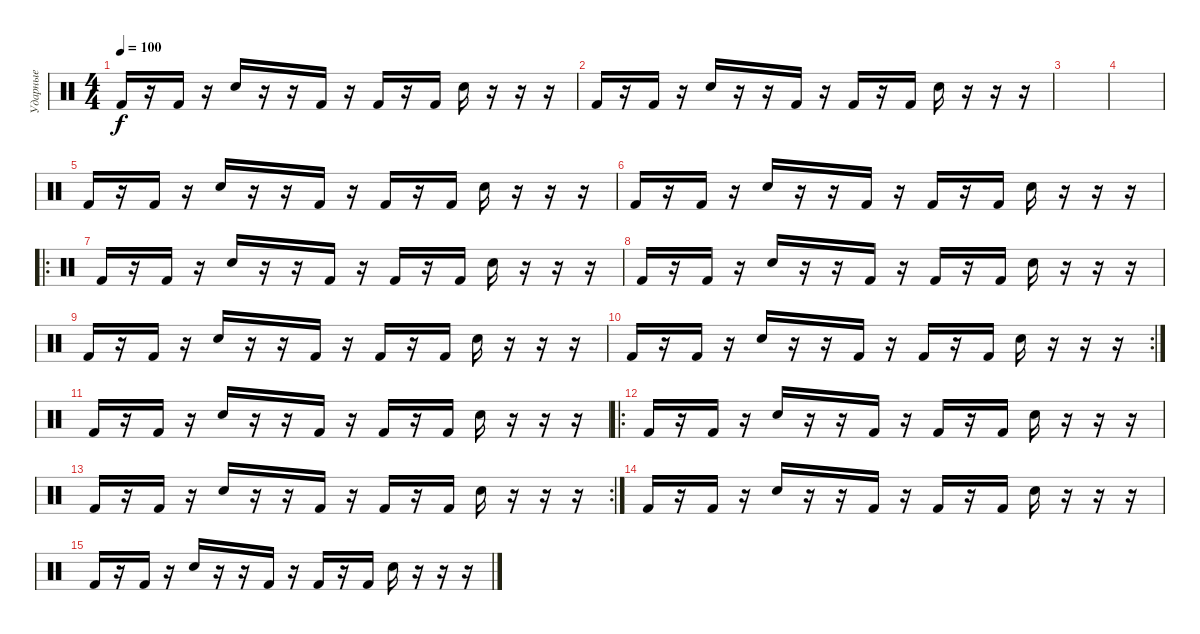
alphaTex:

\track ("Ударные" "Ударные") {instrument percussion}
\staff {score}
\articulation defaults
\ts (4 4)
\tempo 100
\clef neutral
\ks c "Kick (hit) 2".16{dy f}
r.16 "Kick (hit) 2".16 r.16 "Electric Snare (hit)".16 r.16 r.16 "Kick (hit) 2".16 r.16 "Kick (hit) 2".16 r.16 "Kick (hit) 2".16 "Electric Snare (hit)".16 r.16 r.16 r.16 |
"Kick (hit) 2".16 r.16 "Kick (hit) 2".16 r.16 "Electric Snare (hit)".16 r.16 r.16 "Kick (hit) 2".16 r.16 "Kick (hit) 2".16 r.16 "Kick (hit) 2".16 "Electric Snare (hit)".16 r.16 r.16 r.16 |
|
|
"Kick (hit) 2".16 r.16 "Kick (hit) 2".16 r.16 "Electric Snare (hit)".16 r.16 r.16 "Kick (hit) 2".16 r.16 "Kick (hit) 2".16 r.16 "Kick (hit) 2".16 "Electric Snare (hit)".16 r.16 r.16 r.16 |
"Kick (hit) 2".16 r.16 "Kick (hit) 2".16 r.16 "Electric Snare (hit)".16 r.16 r.16 "Kick (hit) 2".16 r.16 "Kick (hit) 2".16 r.16 "Kick (hit) 2".16 "Electric Snare (hit)".16 r.16 r.16 r.16 |
\ro "Kick (hit) 2".16
r.16 "Kick (hit) 2".16 r.16 "Electric Snare (hit)".16 r.16 r.16 "Kick (hit) 2".16 r.16 "Kick (hit) 2".16 r.16 "Kick (hit) 2".16 "Electric Snare (hit)".16 r.16 r.16 r.16 |
"Kick (hit) 2".16 r.16 "Kick (hit) 2".16 r.16 "Electric Snare (hit)".16 r.16 r.16 "Kick (hit) 2".16 r.16 "Kick (hit) 2".16 r.16 "Kick (hit) 2".16 "Electric Snare (hit)".16 r.16 r.16 r.16 |
"Kick (hit) 2".16 r.16 "Kick (hit) 2".16 r.16 "Electric Snare (hit)".16 r.16 r.16 "Kick (hit) 2".16 r.16 "Kick (hit) 2".16 r.16 "Kick (hit) 2".16 "Electric Snare (hit)".16 r.16 r.16 r.16 |
\rc 2 "Kick (hit) 2".16
r.16 "Kick (hit) 2".16 r.16 "Electric Snare (hit)".16 r.16 r.16 "Kick (hit) 2".16 r.16 "Kick (hit) 2".16 r.16 "Kick (hit) 2".16 "Electric Snare (hit)".16 r.16 r.16 r.16 |
"Kick (hit) 2".16 r.16 "Kick (hit) 2".16 r.16 "Electric Snare (hit)".16 r.16 r.16 "Kick (hit) 2".16 r.16 "Kick (hit) 2".16 r.16 "Kick (hit) 2".16 "Electric Snare (hit)".16 r.16 r.16 r.16 |
\ro "Kick (hit) 2".16
r.16 "Kick (hit) 2".16 r.16 "Electric Snare (hit)".16 r.16 r.16 "Kick (hit) 2".16 r.16 "Kick (hit) 2".16 r.16 "Kick (hit) 2".16 "Electric Snare (hit)".16 r.16 r.16 r.16 |
\rc 2 "Kick (hit) 2".16
r.16 "Kick (hit) 2".16 r.16 "Electric Snare (hit)".16 r.16 r.16 "Kick (hit) 2".16 r.16 "Kick (hit) 2".16 r.16 "Kick (hit) 2".16 "Electric Snare (hit)".16 r.16 r.16 r.16 |
"Kick (hit) 2".16 r.16 "Kick (hit) 2".16 r.16 "Electric Snare (hit)".16 r.16 r.16 "Kick (hit) 2".16 r.16 "Kick (hit) 2".16 r.16 "Kick (hit) 2".16 "Electric Snare (hit)".16 r.16 r.16 r.16 |
"Kick (hit) 2".16 r.16 "Kick (hit) 2".16 r.16 "Electric Snare (hit)".16 r.16 r.16 "Kick (hit) 2".16 r.16 "Kick (hit) 2".16 r.16 "Kick (hit) 2".16 "Electric Snare (hit)".16 r.16 r.16 r.16
